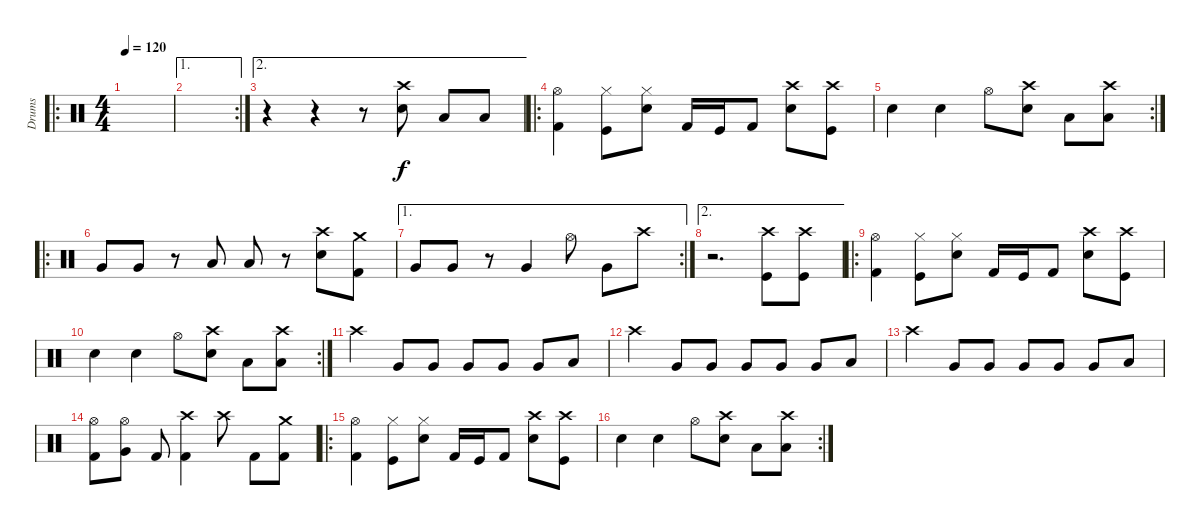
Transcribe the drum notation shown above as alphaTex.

\track ("Drums" "Drums") {instrument percussion}
\staff {score}
\articulation defaults
\ro
\ts (4 4)
\tempo 120
\clef neutral
\ks c
|
\ae 1
\rc 2
|
\ae 2
r.4 r.4 r.8 ("Snare (hit) 2" "Crash high (hit)").8 "Low Tom (hit)".8 "Low Tom (hit)".8 |
\ro
("Kick (hit) 2" "Hi-Hat (open)").4 ("Kick (hit)" "Hi-Hat (closed)").8 ("Hi-Hat (closed)" "Electric Snare (hit)").8 "Kick (hit) 2".16 "Kick (hit)".16 "Kick (hit) 2".8 ("Electric Snare (hit)" "Crash high (hit)").8 ("Kick (hit)" "Crash high (hit)").8 |
\rc 2 "Electric Snare (hit)".4 "Electric Snare (hit)".4 "Hi-Hat (open)".8
("Snare (hit) 2" "Crash high (hit)").8 "Low Tom (hit)".8 ("Low Tom (hit)" "Crash high (hit)").8 |
\ro "Very Low Tom (hit)".8 "Very Low Tom (hit)".8
r.8 "Low Tom (hit)".8 "Low Tom (hit)".8 r.8 ("Electric Snare (hit)" "Crash high (hit)").8 ("Kick (hit) 2" "Crash medium (hit)").8 |
\ae 1
\rc 2 "Very Low Tom (hit)".8 "Very Low Tom (hit)".8
r.8 "Very Low Tom (hit)".4 "Hi-Hat (open)".8 "Very Low Tom (hit)".8 "Crash high (hit)".8 |
\ae 2
r.2{d} ("Kick (hit)" "Crash high (hit)").8 ("Kick (hit)" "Crash high (hit)").8 |
\ro
("Kick (hit) 2" "Hi-Hat (open)").4 ("Kick (hit)" "Hi-Hat (closed)").8 ("Hi-Hat (closed)" "Electric Snare (hit)").8 "Kick (hit) 2".16 "Kick (hit)".16 "Kick (hit) 2".8 ("Electric Snare (hit)" "Crash high (hit)").8 ("Kick (hit)" "Crash high (hit)").8 |
\rc 2 "Electric Snare (hit)".4 "Electric Snare (hit)".4 "Hi-Hat (open)".8
("Snare (hit) 2" "Crash high (hit)").8 "Low Tom (hit)".8 ("Low Tom (hit)" "Crash high (hit)").8 |
"Crash high (hit)".4 "Very Low Tom (hit)".8 "Very Low Tom (hit)".8 "Very Low Tom (hit)".8 "Very Low Tom (hit)".8 "Very Low Tom (hit)".8 "Low Tom (hit)".8 |
"Crash high (hit)".4 "Very Low Tom (hit)".8 "Very Low Tom (hit)".8 "Very Low Tom (hit)".8 "Very Low Tom (hit)".8 "Very Low Tom (hit)".8 "Low Tom (hit)".8 |
"Crash high (hit)".4 "Very Low Tom (hit)".8 "Very Low Tom (hit)".8 "Very Low Tom (hit)".8 "Very Low Tom (hit)".8 "Very Low Tom (hit)".8 "Low Tom (hit)".8 |
("Kick (hit) 2" "Hi-Hat (open)").8 ("Hi-Hat (open)" "Very Low Tom (hit)").8 "Kick (hit) 2".8 ("Kick (hit) 2" "Crash high (hit)").4 "Crash high (hit)".8 "Kick (hit) 2".8 ("Kick (hit) 2" "Crash medium (hit)").8 |
\ro
("Kick (hit) 2" "Hi-Hat (open)").4 ("Kick (hit)" "Hi-Hat (closed)").8 ("Hi-Hat (closed)" "Electric Snare (hit)").8 "Kick (hit) 2".16 "Kick (hit)".16 "Kick (hit) 2".8 ("Electric Snare (hit)" "Crash high (hit)").8 ("Kick (hit)" "Crash high (hit)").8 |
\rc 2 "Electric Snare (hit)".4 "Electric Snare (hit)".4 "Hi-Hat (open)".8
("Snare (hit) 2" "Crash high (hit)").8 "Low Tom (hit)".8 ("Low Tom (hit)" "Crash high (hit)").8
